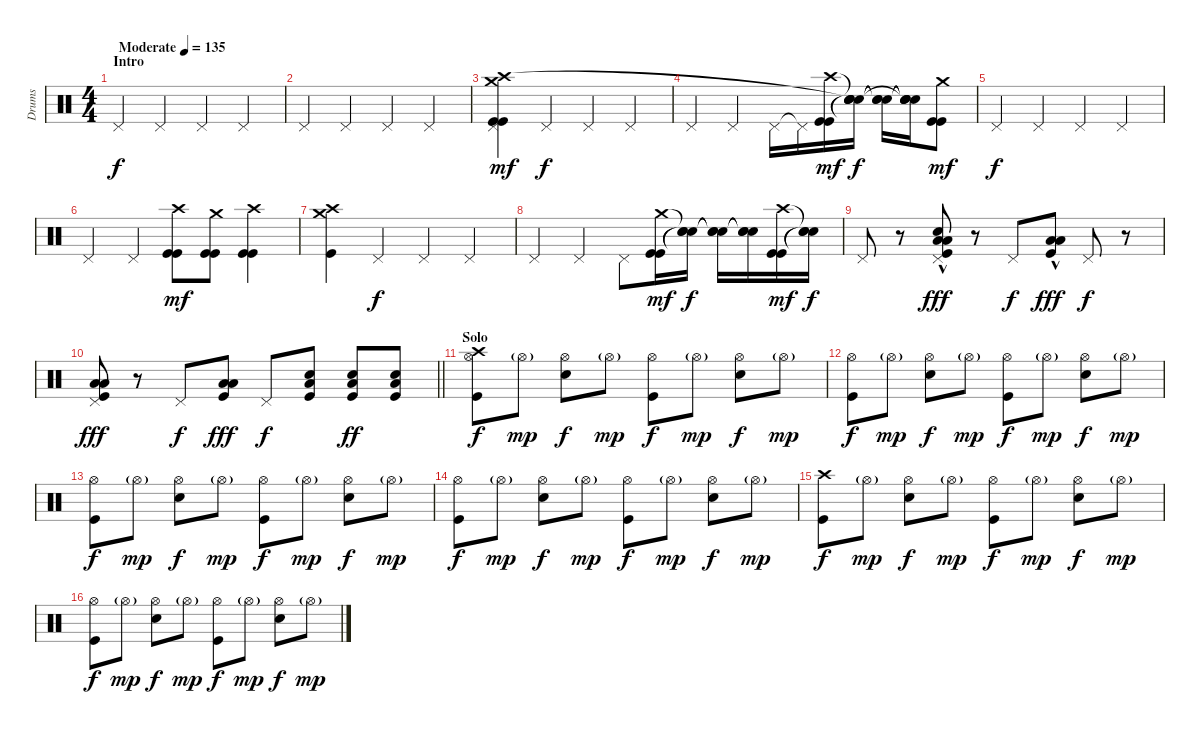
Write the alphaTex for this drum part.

\track ("Drums" "Drums") {instrument percussion}
\staff {score}
\articulation defaults
\ts (4 4)
\section ("" "Intro")
\tempo (135 "Moderate")
\clef neutral
\ks c "Pedal Hi-Hat (hit)".4{dy f} "Pedal Hi-Hat (hit)".4 "Pedal Hi-Hat (hit)".4 "Pedal Hi-Hat (hit)".4
|
"Pedal Hi-Hat (hit)".4 "Pedal Hi-Hat (hit)".4 "Pedal Hi-Hat (hit)".4 "Pedal Hi-Hat (hit)".4 |
("Pedal Hi-Hat (hit)" "Kick (hit)" "Crash medium (hit)" "Crash high (hit)" "Kick (hit)").4{dy mf} "Pedal Hi-Hat (hit)".4{dy f} "Pedal Hi-Hat (hit)".4 "Pedal Hi-Hat (hit)".4 |
"Pedal Hi-Hat (hit)".4 "Pedal Hi-Hat (hit)".4 "Pedal Hi-Hat (hit)".16 "Pedal Hi-Hat (hit)"{t}.16 ("Crash high (hit)" "Kick (hit)" "Kick (hit)").16{dy mf} ("Snare (hit)"{t} "Snare (hit)"{t} "Snare (hit)"{t} "Snare (hit)"{t}).16{dy f} ("Snare (hit)"{t} "Snare (hit)"{t} "Snare (hit)"{t}).16 ("Snare (hit)"{t} "Snare (hit)"{t} "Snare (hit)"{t} "Snare (hit)"{t}).16 ("Crash medium (hit)" "Kick (hit)" "Kick (hit)").8{dy mf} |
"Pedal Hi-Hat (hit)".4{dy f} "Pedal Hi-Hat (hit)".4 "Pedal Hi-Hat (hit)".4 "Pedal Hi-Hat (hit)".4 |
"Pedal Hi-Hat (hit)".4 "Pedal Hi-Hat (hit)".4 ("Kick (hit)" "Kick (hit)" "Crash high (hit)").8{dy mf} ("Kick (hit)" "Kick (hit)" "Crash medium (hit)").8 ("Kick (hit)" "Kick (hit)" "Crash high (hit)").4 |
("Crash medium (hit)" "Crash high (hit)" "Kick (hit)").4 "Pedal Hi-Hat (hit)".4{dy f} "Pedal Hi-Hat (hit)".4 "Pedal Hi-Hat (hit)".4 |
"Pedal Hi-Hat (hit)".4 "Pedal Hi-Hat (hit)".4 "Pedal Hi-Hat (hit)".8 ("Kick (hit)" "Kick (hit)" "Crash medium (hit)").16{dy mf} ("Snare (hit)"{t} "Snare (hit)"{t} "Snare (hit)"{t}).16{dy f} ("Snare (hit)"{t} "Snare (hit)"{t} "Snare (hit)"{t}).16 ("Snare (hit)"{t} "Snare (hit)"{t} "Snare (hit)"{t}).16 ("Kick (hit)" "Crash high (hit)" "Kick (hit)").16{dy mf} ("Snare (hit)"{t} "Snare (hit)"{t} "Snare (hit)"{t}).16{dy f} |
"Pedal Hi-Hat (hit)".8 r.8 ("Pedal Hi-Hat (hit)" "Snare (hit) 2" "Low Tom (hit)"{hac} "Low Tom (hit)"{hac} "Kick (hit)").8{dy fff} r.8 "Pedal Hi-Hat (hit)".8{dy f} ("Low Tom (hit)"{hac} "Low Tom (hit)"{hac} "Kick (hit)").8{dy fff} "Pedal Hi-Hat (hit)".8{dy f} r.8 |
\barLineRight lightlight
("Pedal Hi-Hat (hit)" "Low Tom (hit)" "Low Tom (hit)" "Kick (hit)").8{dy fff} r.8 "Pedal Hi-Hat (hit)".8{dy f} ("Low Tom (hit)" "Low Tom (hit)" "Kick (hit)").8{dy fff} "Pedal Hi-Hat (hit)".8{dy f} ("Snare (hit) 2" "Kick (hit)" "Low Tom (hit)").8 ("Snare (hit) 2" "Kick (hit)" "Low Tom (hit)").8{dy ff} ("Snare (hit) 2" "Kick (hit)" "Low Tom (hit)").8 |
\section ("" "Solo")
("Hi-Hat (open)" "Crash high (hit)" "Kick (hit)").8{dy f} "Hi-Hat (open)"{g}.8{dy mp} ("Hi-Hat (open)" "Snare (hit) 2").8{dy f} "Hi-Hat (open)"{g}.8{dy mp} ("Hi-Hat (open)" "Kick (hit)").8{dy f} "Hi-Hat (open)"{g}.8{dy mp} ("Hi-Hat (open)" "Snare (hit) 2").8{dy f} "Hi-Hat (open)"{g}.8{dy mp} |
("Hi-Hat (open)" "Kick (hit)").8{dy f} "Hi-Hat (open)"{g}.8{dy mp} ("Hi-Hat (open)" "Snare (hit) 2").8{dy f} "Hi-Hat (open)"{g}.8{dy mp} ("Hi-Hat (open)" "Kick (hit)").8{dy f} "Hi-Hat (open)"{g}.8{dy mp} ("Hi-Hat (open)" "Snare (hit) 2").8{dy f} "Hi-Hat (open)"{g}.8{dy mp} |
("Hi-Hat (open)" "Kick (hit)").8{dy f} "Hi-Hat (open)"{g}.8{dy mp} ("Hi-Hat (open)" "Snare (hit) 2").8{dy f} "Hi-Hat (open)"{g}.8{dy mp} ("Hi-Hat (open)" "Kick (hit)").8{dy f} "Hi-Hat (open)"{g}.8{dy mp} ("Hi-Hat (open)" "Snare (hit) 2").8{dy f} "Hi-Hat (open)"{g}.8{dy mp} |
("Hi-Hat (open)" "Kick (hit)").8{dy f} "Hi-Hat (open)"{g}.8{dy mp} ("Hi-Hat (open)" "Snare (hit) 2").8{dy f} "Hi-Hat (open)"{g}.8{dy mp} ("Hi-Hat (open)" "Kick (hit)").8{dy f} "Hi-Hat (open)"{g}.8{dy mp} ("Hi-Hat (open)" "Snare (hit) 2").8{dy f} "Hi-Hat (open)"{g}.8{dy mp} |
("Crash high (hit)" "Kick (hit)").8{dy f} "Hi-Hat (open)"{g}.8{dy mp} ("Hi-Hat (open)" "Snare (hit) 2").8{dy f} "Hi-Hat (open)"{g}.8{dy mp} ("Hi-Hat (open)" "Kick (hit)").8{dy f} "Hi-Hat (open)"{g}.8{dy mp} ("Hi-Hat (open)" "Snare (hit) 2").8{dy f} "Hi-Hat (open)"{g}.8{dy mp} |
("Hi-Hat (open)" "Kick (hit)").8{dy f} "Hi-Hat (open)"{g}.8{dy mp} ("Hi-Hat (open)" "Snare (hit) 2").8{dy f} "Hi-Hat (open)"{g}.8{dy mp} ("Hi-Hat (open)" "Kick (hit)").8{dy f} "Hi-Hat (open)"{g}.8{dy mp} ("Hi-Hat (open)" "Snare (hit) 2").8{dy f} "Hi-Hat (open)"{g}.8{dy mp}
